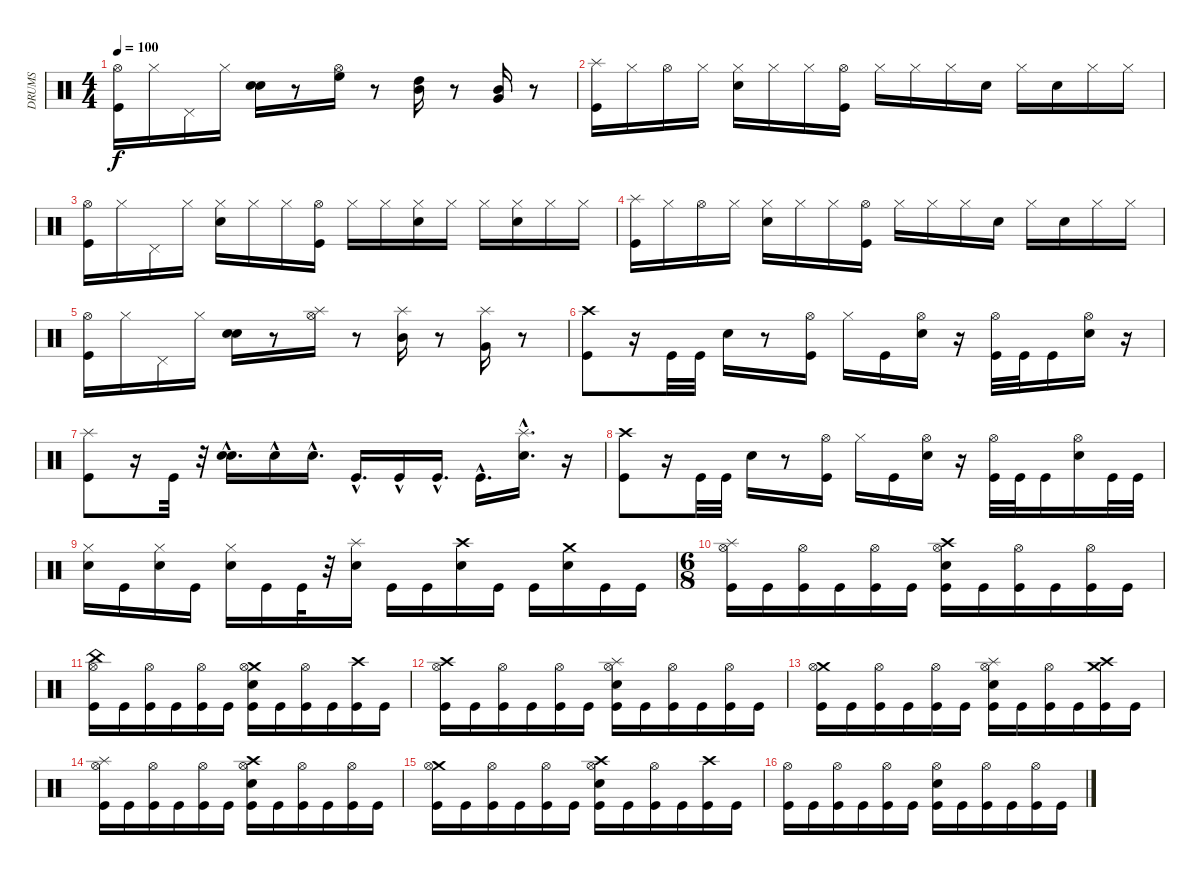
\track ("DRUMS" "DRUMS") {instrument percussion}
\staff {score}
\articulation defaults
\ts (4 4)
\tempo 100
\clef neutral
\ks c
("Hi-Hat (open)" "Kick (hit)").16{dy f} "Hi-Hat (closed)".16 "Pedal Hi-Hat (hit)".16 "Hi-Hat (closed)".16 ("Snare (hit) 2" "Electric Snare (hit)").16 r.8 ("High Floor Tom (hit)" "Hi-Hat (open)").16 r.8 ("Mid Tom (hit)" "High Tom (hit)").16 r.8 ("Very Low Tom (hit)" "Mid Tom (hit)").16 r.8 |
("Splash (hit)" "Kick (hit)").16 "Hi-Hat (closed)".16 "Hi-Hat (open)".16 "Hi-Hat (closed)".16 ("Hi-Hat (closed)" "Snare (hit) 2").16 "Hi-Hat (closed)".16 "Hi-Hat (closed)".16 ("Hi-Hat (open)" "Kick (hit)").16 "Hi-Hat (closed)".16 "Hi-Hat (closed)".16 "Hi-Hat (closed)".16 "Snare (hit) 2".16 "Hi-Hat (closed)".16 "Snare (hit) 2".16 "Hi-Hat (closed)".16 "Hi-Hat (closed)".16 |
("Hi-Hat (open)" "Kick (hit)").16 "Hi-Hat (closed)".16 "Pedal Hi-Hat (hit)".16 "Hi-Hat (closed)".16 ("Snare (hit) 2" "Hi-Hat (closed)").16 "Hi-Hat (closed)".16 "Hi-Hat (closed)".16 ("Kick (hit)" "Hi-Hat (open)").16 "Hi-Hat (closed)".16 "Hi-Hat (closed)".16 ("Snare (hit) 2" "Hi-Hat (closed)").16 "Hi-Hat (closed)".16 "Hi-Hat (closed)".16 ("Snare (hit) 2" "Hi-Hat (closed)").16 "Hi-Hat (closed)".16 "Hi-Hat (closed)".16 |
("Splash (hit)" "Kick (hit)").16 "Hi-Hat (closed)".16 "Hi-Hat (open)".16 "Hi-Hat (closed)".16 ("Hi-Hat (closed)" "Snare (hit) 2").16 "Hi-Hat (closed)".16 "Hi-Hat (closed)".16 ("Hi-Hat (open)" "Kick (hit)").16 "Hi-Hat (closed)".16 "Hi-Hat (closed)".16 "Hi-Hat (closed)".16 "Snare (hit) 2".16 "Hi-Hat (closed)".16 "Snare (hit) 2".16 "Hi-Hat (closed)".16 "Hi-Hat (closed)".16 |
("Hi-Hat (open)" "Kick (hit)").16 "Hi-Hat (closed)".16 "Pedal Hi-Hat (hit)".16 "Hi-Hat (closed)".16 ("Snare (hit) 2" "Electric Snare (hit)").16 r.8 ("Splash (hit)" "Hi-Hat (open)").16 r.8 ("Mid Tom (hit)" "Splash (hit)").16 r.8 ("Very Low Tom (hit)" "Splash (hit)").16 r.8 |
("Crash high (hit)" "Kick (hit)").8 r.16 "Kick (hit)".32 "Kick (hit)".32 "Snare (hit) 2".16 r.8 ("Hi-Hat (open)" "Kick (hit)").16 "Hi-Hat (closed)".16 "Kick (hit)".16 ("Hi-Hat (open)" "Snare (hit) 2").16 r.16 ("Hi-Hat (open)" "Kick (hit)").32 "Kick (hit)".32 "Kick (hit)".16 ("Hi-Hat (open)" "Snare (hit) 2").16 r.16 |
("Splash (hit)" "Kick (hit)").8 r.16 "Kick (hit)".32 r.32 ("Snare (hit) 2"{hac} "Snare (hit) 2"{hac}).16{d} "Snare (hit) 2"{hac}.16 "Snare (hit) 2"{hac}.16{d} "Kick (hit)"{hac}.16{d} "Kick (hit)"{hac}.16 "Kick (hit)"{hac}.16{d} "Kick (hit)"{hac}.16{d} ("Splash (hit)"{hac} "Snare (hit) 2"{hac}).16{d} r.16 |
("Crash high (hit)" "Kick (hit)").8 r.16 "Kick (hit)".32 "Kick (hit)".32 "Snare (hit) 2".16 r.8 ("Hi-Hat (open)" "Kick (hit)").16 "Hi-Hat (closed)".16 "Kick (hit)".16 ("Hi-Hat (open)" "Snare (hit) 2").16 r.16 ("Hi-Hat (open)" "Kick (hit)").32 "Kick (hit)".32 "Kick (hit)".16 ("Hi-Hat (open)" "Snare (hit) 2").16 "Kick (hit)".32 "Kick (hit)".32 |
("Hi-Hat (closed)" "Snare (hit) 2").16 "Kick (hit)".16 ("Hi-Hat (closed)" "Snare (hit) 2").16 "Kick (hit)".16 ("Hi-Hat (closed)" "Snare (hit) 2").16 "Kick (hit)".16 "Kick (hit)".32 r.32 ("Splash (hit)" "Snare (hit) 2").16 "Kick (hit)".16 "Kick (hit)".16 ("Crash high (hit)" "Snare (hit) 2").16 "Kick (hit)".16 "Kick (hit)".16 ("Crash medium (hit)" "Snare (hit) 2").16 "Kick (hit)".16 "Kick (hit)".16 |
\ts (6 8)
("Kick (hit)" "Splash (hit)" "Hi-Hat (open)").16 "Kick (hit)".16 ("Kick (hit)" "Hi-Hat (open)").16 "Kick (hit)".16 ("Kick (hit)" "Hi-Hat (open)").16 "Kick (hit)".16 ("Kick (hit)" "Crash high (hit)" "Snare (hit) 2" "Hi-Hat (open)").16 "Kick (hit)".16 ("Kick (hit)" "Hi-Hat (open)").16 "Kick (hit)".16 ("Kick (hit)" "Hi-Hat (open)").16 "Kick (hit)".16 |
("Kick (hit)" "China (hit)" "Hi-Hat (open)").16 "Kick (hit)".16 ("Kick (hit)" "Hi-Hat (open)").16 "Kick (hit)".16 ("Kick (hit)" "Hi-Hat (open)").16 "Kick (hit)".16 ("Kick (hit)" "Crash medium (hit)" "Snare (hit) 2" "Hi-Hat (open)").16 "Kick (hit)".16 ("Kick (hit)" "Hi-Hat (open)").16 "Kick (hit)".16 ("Kick (hit)" "Crash high (hit)").16 "Kick (hit)".16 |
("Kick (hit)" "Crash high (hit)" "Hi-Hat (open)").16 "Kick (hit)".16 ("Kick (hit)" "Hi-Hat (open)").16 "Kick (hit)".16 ("Kick (hit)" "Hi-Hat (open)").16 "Kick (hit)".16 ("Kick (hit)" "Splash (hit)" "Snare (hit) 2" "Hi-Hat (open)").16 "Kick (hit)".16 ("Kick (hit)" "Hi-Hat (open)").16 "Kick (hit)".16 ("Kick (hit)" "Hi-Hat (open)").16 "Kick (hit)".16 |
("Kick (hit)" "Crash medium (hit)" "Hi-Hat (open)").16 "Kick (hit)".16 ("Kick (hit)" "Hi-Hat (open)").16 "Kick (hit)".16 ("Kick (hit)" "Hi-Hat (open)").16 "Kick (hit)".16 ("Kick (hit)" "Splash (hit)" "Snare (hit) 2" "Hi-Hat (open)").16 "Kick (hit)".16 ("Kick (hit)" "Hi-Hat (open)").16 "Kick (hit)".16 ("Kick (hit)" "Crash medium (hit)" "Crash high (hit)").16 "Kick (hit)".16 |
("Kick (hit)" "Splash (hit)" "Hi-Hat (open)").16 "Kick (hit)".16 ("Kick (hit)" "Hi-Hat (open)").16 "Kick (hit)".16 ("Kick (hit)" "Hi-Hat (open)").16 "Kick (hit)".16 ("Kick (hit)" "Crash high (hit)" "Snare (hit) 2" "Hi-Hat (open)").16 "Kick (hit)".16 ("Kick (hit)" "Hi-Hat (open)").16 "Kick (hit)".16 ("Kick (hit)" "Hi-Hat (open)").16 "Kick (hit)".16 |
("Kick (hit)" "Crash medium (hit)" "Hi-Hat (open)").16 "Kick (hit)".16 ("Kick (hit)" "Hi-Hat (open)").16 "Kick (hit)".16 ("Kick (hit)" "Hi-Hat (open)").16 "Kick (hit)".16 ("Snare (hit) 2" "Kick (hit)" "Crash high (hit)" "Hi-Hat (open)").16 "Kick (hit)".16 ("Kick (hit)" "Hi-Hat (open)").16 "Kick (hit)".16 ("Kick (hit)" "Crash high (hit)").16 "Kick (hit)".16 |
("Kick (hit)" "Hi-Hat (open)").16 "Kick (hit)".16 ("Kick (hit)" "Hi-Hat (open)").16 "Kick (hit)".16 ("Kick (hit)" "Hi-Hat (open)").16 "Kick (hit)".16 ("Kick (hit)" "Snare (hit) 2" "Hi-Hat (open)").16 "Kick (hit)".16 ("Kick (hit)" "Hi-Hat (open)").16 "Kick (hit)".16 ("Kick (hit)" "Hi-Hat (open)").16 "Kick (hit)".16
